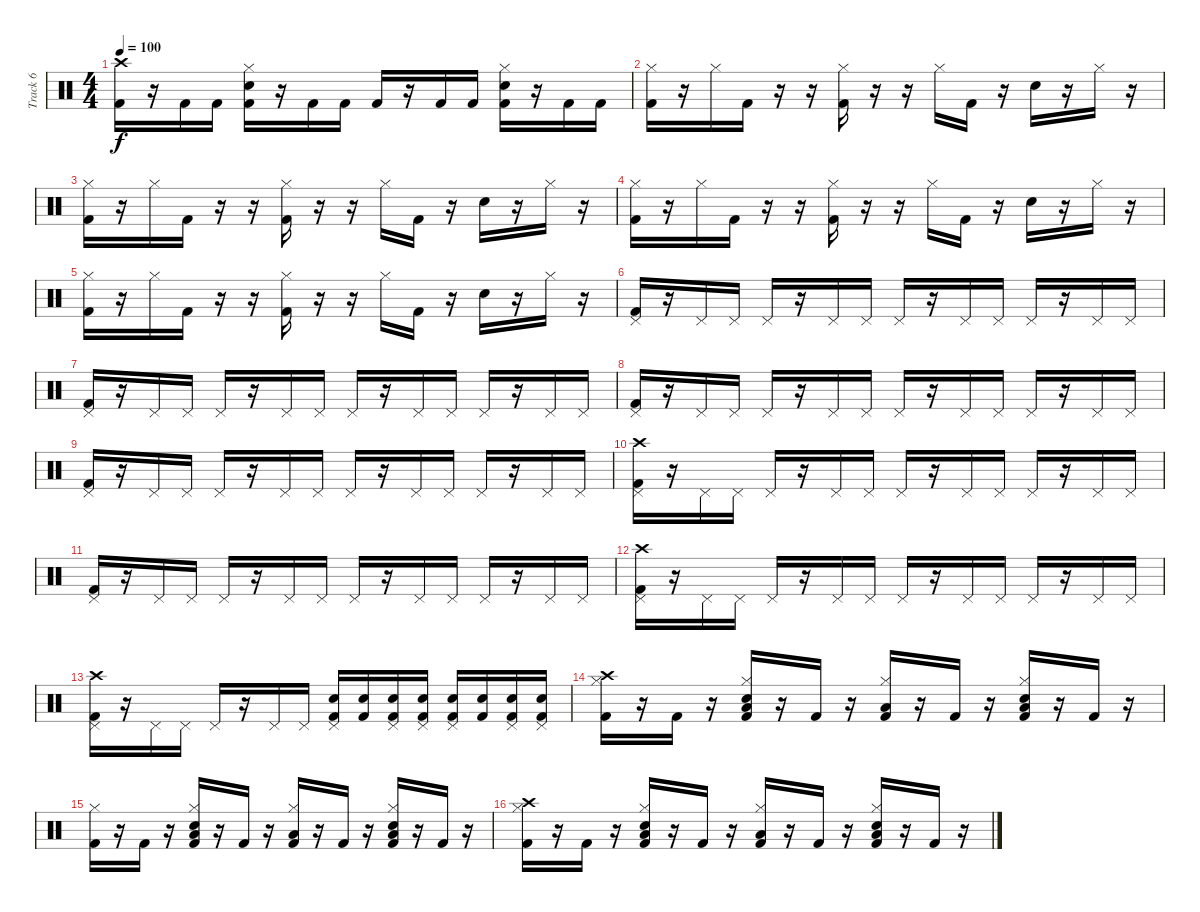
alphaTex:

\track ("Track 6" "Track 6") {instrument percussion}
\staff {score}
\articulation defaults
\ts (4 4)
\tempo 100
\clef neutral
\ks c
("Crash high (hit)" "Kick (hit) 2").16{dy f} r.16 "Kick (hit) 2".16 "Kick (hit) 2".16 ("Kick (hit) 2" "Snare (hit) 2" "Hi-Hat (closed)").16 r.16 "Kick (hit) 2".16 "Kick (hit) 2".16 "Kick (hit) 2".16 r.16 "Kick (hit) 2".16 "Kick (hit) 2".16 ("Kick (hit) 2" "Snare (hit) 2" "Hi-Hat (closed)").16 r.16 "Kick (hit) 2".16 "Kick (hit) 2".16 |
("Kick (hit) 2" "Hi-Hat (closed)").16 r.16 "Hi-Hat (closed)".16 "Kick (hit) 2".16 r.16 r.16 ("Kick (hit) 2" "Hi-Hat (closed)").16 r.16 r.16 "Hi-Hat (closed)".16 "Kick (hit) 2".16 r.16 "Snare (hit) 2".16 r.16 "Hi-Hat (closed)".16 r.16 |
("Kick (hit) 2" "Hi-Hat (closed)").16 r.16 "Hi-Hat (closed)".16 "Kick (hit) 2".16 r.16 r.16 ("Kick (hit) 2" "Hi-Hat (closed)").16 r.16 r.16 "Hi-Hat (closed)".16 "Kick (hit) 2".16 r.16 "Snare (hit) 2".16 r.16 "Hi-Hat (closed)".16 r.16 |
("Kick (hit) 2" "Hi-Hat (closed)").16 r.16 "Hi-Hat (closed)".16 "Kick (hit) 2".16 r.16 r.16 ("Kick (hit) 2" "Hi-Hat (closed)").16 r.16 r.16 "Hi-Hat (closed)".16 "Kick (hit) 2".16 r.16 "Snare (hit) 2".16 r.16 "Hi-Hat (closed)".16 r.16 |
("Kick (hit) 2" "Hi-Hat (closed)").16 r.16 "Hi-Hat (closed)".16 "Kick (hit) 2".16 r.16 r.16 ("Kick (hit) 2" "Hi-Hat (closed)").16 r.16 r.16 "Hi-Hat (closed)".16 "Kick (hit) 2".16 r.16 "Snare (hit) 2".16 r.16 "Hi-Hat (closed)".16 r.16 |
("Pedal Hi-Hat (hit)" "Kick (hit) 2").16 r.16 "Pedal Hi-Hat (hit)".16 "Pedal Hi-Hat (hit)".16 "Pedal Hi-Hat (hit)".16 r.16 "Pedal Hi-Hat (hit)".16 "Pedal Hi-Hat (hit)".16 "Pedal Hi-Hat (hit)".16 r.16 "Pedal Hi-Hat (hit)".16 "Pedal Hi-Hat (hit)".16 "Pedal Hi-Hat (hit)".16 r.16 "Pedal Hi-Hat (hit)".16 "Pedal Hi-Hat (hit)".16 |
("Pedal Hi-Hat (hit)" "Kick (hit) 2").16 r.16 "Pedal Hi-Hat (hit)".16 "Pedal Hi-Hat (hit)".16 "Pedal Hi-Hat (hit)".16 r.16 "Pedal Hi-Hat (hit)".16 "Pedal Hi-Hat (hit)".16 "Pedal Hi-Hat (hit)".16 r.16 "Pedal Hi-Hat (hit)".16 "Pedal Hi-Hat (hit)".16 "Pedal Hi-Hat (hit)".16 r.16 "Pedal Hi-Hat (hit)".16 "Pedal Hi-Hat (hit)".16 |
("Pedal Hi-Hat (hit)" "Kick (hit) 2").16 r.16 "Pedal Hi-Hat (hit)".16 "Pedal Hi-Hat (hit)".16 "Pedal Hi-Hat (hit)".16 r.16 "Pedal Hi-Hat (hit)".16 "Pedal Hi-Hat (hit)".16 "Pedal Hi-Hat (hit)".16 r.16 "Pedal Hi-Hat (hit)".16 "Pedal Hi-Hat (hit)".16 "Pedal Hi-Hat (hit)".16 r.16 "Pedal Hi-Hat (hit)".16 "Pedal Hi-Hat (hit)".16 |
("Pedal Hi-Hat (hit)" "Kick (hit) 2").16 r.16 "Pedal Hi-Hat (hit)".16 "Pedal Hi-Hat (hit)".16 "Pedal Hi-Hat (hit)".16 r.16 "Pedal Hi-Hat (hit)".16 "Pedal Hi-Hat (hit)".16 "Pedal Hi-Hat (hit)".16 r.16 "Pedal Hi-Hat (hit)".16 "Pedal Hi-Hat (hit)".16 "Pedal Hi-Hat (hit)".16 r.16 "Pedal Hi-Hat (hit)".16 "Pedal Hi-Hat (hit)".16 |
("Pedal Hi-Hat (hit)" "Kick (hit) 2" "Crash high (hit)").16 r.16 "Pedal Hi-Hat (hit)".16 "Pedal Hi-Hat (hit)".16 "Pedal Hi-Hat (hit)".16 r.16 "Pedal Hi-Hat (hit)".16 "Pedal Hi-Hat (hit)".16 "Pedal Hi-Hat (hit)".16 r.16 "Pedal Hi-Hat (hit)".16 "Pedal Hi-Hat (hit)".16 "Pedal Hi-Hat (hit)".16 r.16 "Pedal Hi-Hat (hit)".16 "Pedal Hi-Hat (hit)".16 |
("Pedal Hi-Hat (hit)" "Kick (hit) 2").16 r.16 "Pedal Hi-Hat (hit)".16 "Pedal Hi-Hat (hit)".16 "Pedal Hi-Hat (hit)".16 r.16 "Pedal Hi-Hat (hit)".16 "Pedal Hi-Hat (hit)".16 "Pedal Hi-Hat (hit)".16 r.16 "Pedal Hi-Hat (hit)".16 "Pedal Hi-Hat (hit)".16 "Pedal Hi-Hat (hit)".16 r.16 "Pedal Hi-Hat (hit)".16 "Pedal Hi-Hat (hit)".16 |
("Pedal Hi-Hat (hit)" "Kick (hit) 2" "Crash high (hit)").16 r.16 "Pedal Hi-Hat (hit)".16 "Pedal Hi-Hat (hit)".16 "Pedal Hi-Hat (hit)".16 r.16 "Pedal Hi-Hat (hit)".16 "Pedal Hi-Hat (hit)".16 "Pedal Hi-Hat (hit)".16 r.16 "Pedal Hi-Hat (hit)".16 "Pedal Hi-Hat (hit)".16 "Pedal Hi-Hat (hit)".16 r.16 "Pedal Hi-Hat (hit)".16 "Pedal Hi-Hat (hit)".16 |
("Pedal Hi-Hat (hit)" "Kick (hit) 2" "Crash high (hit)").16 r.16 "Pedal Hi-Hat (hit)".16 "Pedal Hi-Hat (hit)".16 "Pedal Hi-Hat (hit)".16 r.16 "Pedal Hi-Hat (hit)".16 "Pedal Hi-Hat (hit)".16 ("Pedal Hi-Hat (hit)" "Snare (hit) 2" "Kick (hit) 2").16 ("Snare (hit) 2" "Kick (hit) 2").16 ("Pedal Hi-Hat (hit)" "Snare (hit) 2" "Kick (hit) 2").16 ("Pedal Hi-Hat (hit)" "Snare (hit) 2" "Kick (hit) 2").16 ("Pedal Hi-Hat (hit)" "Snare (hit) 2" "Kick (hit) 2").16 ("Snare (hit) 2" "Kick (hit) 2").16 ("Pedal Hi-Hat (hit)" "Snare (hit) 2" "Kick (hit) 2").16 ("Pedal Hi-Hat (hit)" "Snare (hit) 2" "Kick (hit) 2").16 |
("Hi-Hat (closed)" "Kick (hit) 2" "Crash high (hit)").16 r.16 "Kick (hit) 2".16 r.16 ("Hi-Hat (closed)" "Kick (hit) 2" "Low Floor Tom (hit)" "Snare (hit) 2").16 r.16 "Kick (hit) 2".16 r.16 ("Hi-Hat (closed)" "Kick (hit) 2" "Low Floor Tom (hit)").16 r.16 "Kick (hit) 2".16 r.16 ("Hi-Hat (closed)" "Kick (hit) 2" "Low Floor Tom (hit)" "Snare (hit) 2").16 r.16 "Kick (hit) 2".16 r.16 |
("Hi-Hat (closed)" "Kick (hit) 2").16 r.16 "Kick (hit) 2".16 r.16 ("Hi-Hat (closed)" "Kick (hit) 2" "Low Floor Tom (hit)" "Snare (hit) 2").16 r.16 "Kick (hit) 2".16 r.16 ("Hi-Hat (closed)" "Kick (hit) 2" "Low Floor Tom (hit)").16 r.16 "Kick (hit) 2".16 r.16 ("Hi-Hat (closed)" "Kick (hit) 2" "Low Floor Tom (hit)" "Snare (hit) 2").16 r.16 "Kick (hit) 2".16 r.16 |
("Hi-Hat (closed)" "Kick (hit) 2" "Crash high (hit)").16 r.16 "Kick (hit) 2".16 r.16 ("Hi-Hat (closed)" "Kick (hit) 2" "Low Floor Tom (hit)" "Snare (hit) 2").16 r.16 "Kick (hit) 2".16 r.16 ("Hi-Hat (closed)" "Kick (hit) 2" "Low Floor Tom (hit)").16 r.16 "Kick (hit) 2".16 r.16 ("Hi-Hat (closed)" "Kick (hit) 2" "Low Floor Tom (hit)" "Snare (hit) 2").16 r.16 "Kick (hit) 2".16 r.16
